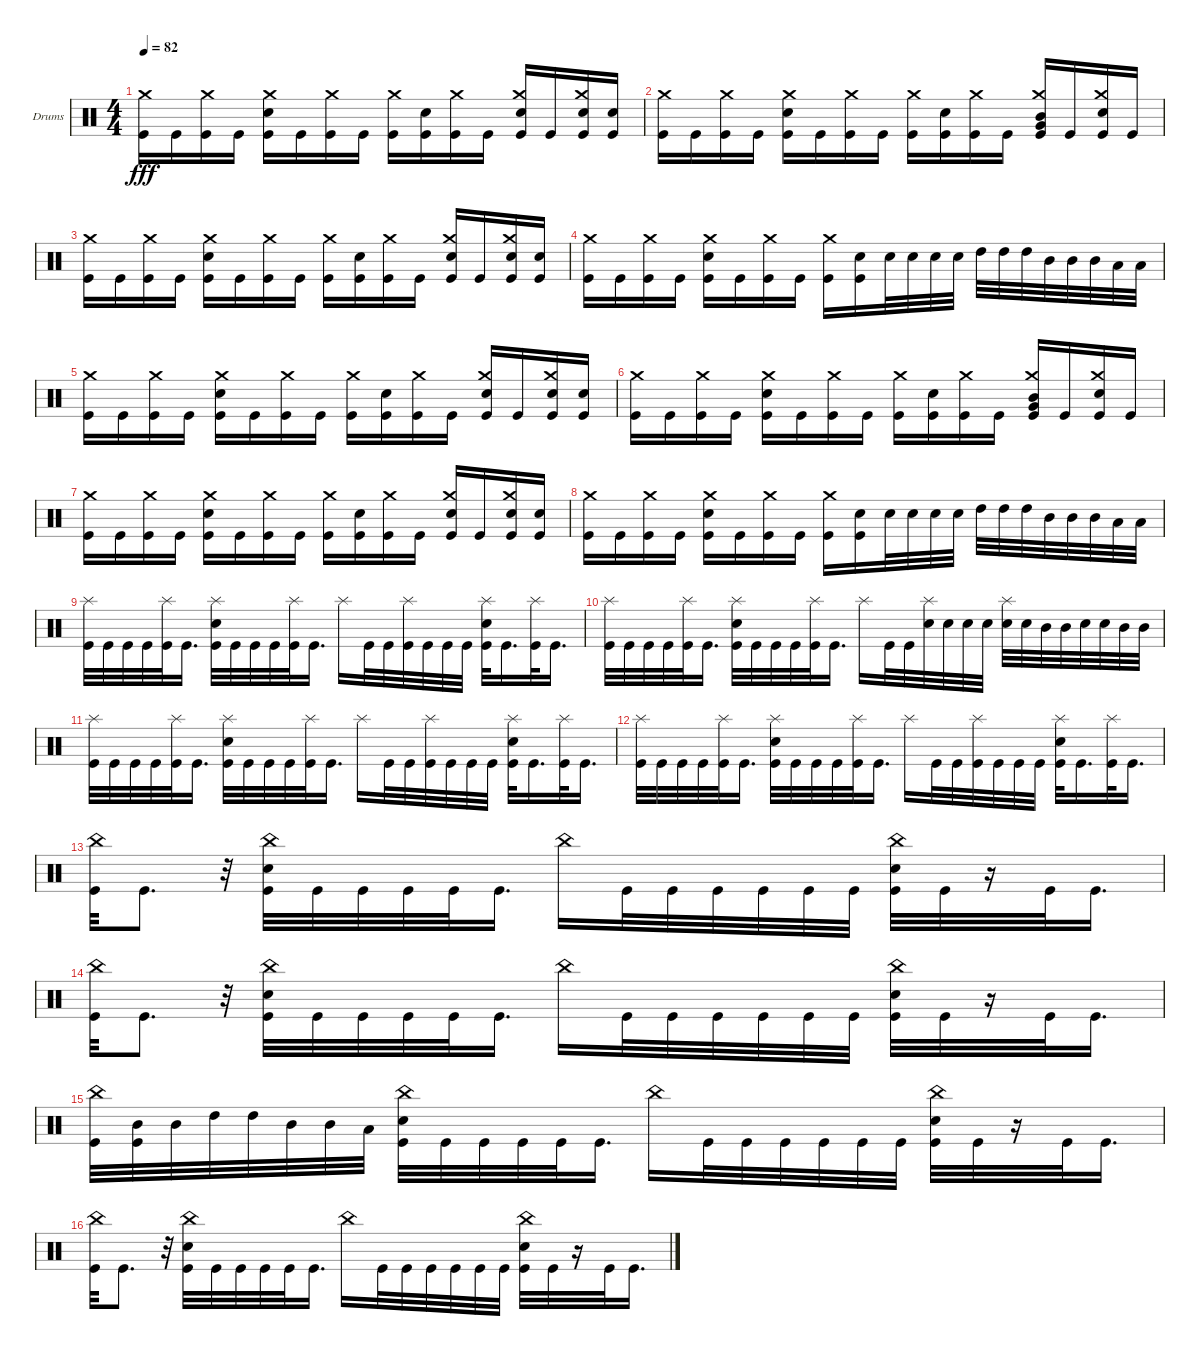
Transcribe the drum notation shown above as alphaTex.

\defaultSystemsLayout 4
\bracketExtendMode groupsimilarinstruments
\firstSystemTrackNameOrientation horizontal
\otherSystemsTrackNameOrientation horizontal
\track ("Drumkit" "Drums") {instrument percussion}
\staff {score}
\articulation defaults
\ts (4 4)
\tempo 82
\clef neutral
\ks c
("Kick (hit)" "Crash medium (hit)").16{dy fff} "Kick (hit)".16 ("Kick (hit)" "Crash medium (hit)").16 "Kick (hit)".16 ("Snare (hit) 2" "Crash medium (hit)" "Kick (hit)").16 "Kick (hit)".16 ("Kick (hit)" "Crash medium (hit)").16 "Kick (hit)".16 ("Kick (hit)" "Crash medium (hit)").16 ("Snare (hit) 2" "Kick (hit)").16 ("Kick (hit)" "Crash medium (hit)").16 "Kick (hit)".16 ("Snare (hit) 2" "Crash medium (hit)" "Kick (hit)").16 "Kick (hit)".16 ("Snare (hit) 2" "Crash medium (hit)" "Kick (hit)").16 ("Snare (hit) 2" "Kick (hit)").16 |
("Kick (hit)" "Crash medium (hit)").16 "Kick (hit)".16 ("Kick (hit)" "Crash medium (hit)").16 "Kick (hit)".16 ("Snare (hit) 2" "Crash medium (hit)" "Kick (hit)").16 "Kick (hit)".16 ("Kick (hit)" "Crash medium (hit)").16 "Kick (hit)".16 ("Kick (hit)" "Crash medium (hit)").16 ("Snare (hit) 2" "Kick (hit)").16 ("Kick (hit)" "Crash medium (hit)").16 "Kick (hit)".16 ("Crash medium (hit)" "Mid Tom (hit)" "Very Low Tom (hit)" "Kick (hit)").16 "Kick (hit)".16 ("Snare (hit) 2" "Crash medium (hit)" "Kick (hit)").16 "Kick (hit)".16 |
("Kick (hit)" "Crash medium (hit)").16 "Kick (hit)".16 ("Kick (hit)" "Crash medium (hit)").16 "Kick (hit)".16 ("Snare (hit) 2" "Crash medium (hit)" "Kick (hit)").16 "Kick (hit)".16 ("Kick (hit)" "Crash medium (hit)").16 "Kick (hit)".16 ("Kick (hit)" "Crash medium (hit)").16 ("Snare (hit) 2" "Kick (hit)").16 ("Kick (hit)" "Crash medium (hit)").16 "Kick (hit)".16 ("Snare (hit) 2" "Crash medium (hit)" "Kick (hit)").16 "Kick (hit)".16 ("Snare (hit) 2" "Crash medium (hit)" "Kick (hit)").16 ("Snare (hit) 2" "Kick (hit)").16 |
("Kick (hit)" "Crash medium (hit)").16 "Kick (hit)".16 ("Kick (hit)" "Crash medium (hit)").16 "Kick (hit)".16 ("Snare (hit) 2" "Crash medium (hit)" "Kick (hit)").16 "Kick (hit)".16 ("Kick (hit)" "Crash medium (hit)").16 "Kick (hit)".16 ("Kick (hit)" "Crash medium (hit)").16 ("Kick (hit)" "Snare (hit) 2").16 "Snare (hit) 2".32 "Snare (hit) 2".32 "Snare (hit) 2".32 "Snare (hit) 2".32 "High Tom (hit)".32 "High Tom (hit)".32 "High Tom (hit)".32 "Mid Tom (hit)".32 "Mid Tom (hit)".32 "Mid Tom (hit)".32 "Low Tom (hit)".32 "Low Tom (hit)".32 |
("Kick (hit)" "Crash medium (hit)").16 "Kick (hit)".16 ("Kick (hit)" "Crash medium (hit)").16 "Kick (hit)".16 ("Snare (hit) 2" "Crash medium (hit)" "Kick (hit)").16 "Kick (hit)".16 ("Kick (hit)" "Crash medium (hit)").16 "Kick (hit)".16 ("Kick (hit)" "Crash medium (hit)").16 ("Snare (hit) 2" "Kick (hit)").16 ("Kick (hit)" "Crash medium (hit)").16 "Kick (hit)".16 ("Snare (hit) 2" "Crash medium (hit)" "Kick (hit)").16 "Kick (hit)".16 ("Snare (hit) 2" "Crash medium (hit)" "Kick (hit)").16 ("Snare (hit) 2" "Kick (hit)").16 |
("Kick (hit)" "Crash medium (hit)").16 "Kick (hit)".16 ("Kick (hit)" "Crash medium (hit)").16 "Kick (hit)".16 ("Snare (hit) 2" "Crash medium (hit)" "Kick (hit)").16 "Kick (hit)".16 ("Kick (hit)" "Crash medium (hit)").16 "Kick (hit)".16 ("Kick (hit)" "Crash medium (hit)").16 ("Snare (hit) 2" "Kick (hit)").16 ("Kick (hit)" "Crash medium (hit)").16 "Kick (hit)".16 ("Crash medium (hit)" "Mid Tom (hit)" "Very Low Tom (hit)" "Kick (hit)").16 "Kick (hit)".16 ("Snare (hit) 2" "Crash medium (hit)" "Kick (hit)").16 "Kick (hit)".16 |
("Kick (hit)" "Crash medium (hit)").16 "Kick (hit)".16 ("Kick (hit)" "Crash medium (hit)").16 "Kick (hit)".16 ("Snare (hit) 2" "Crash medium (hit)" "Kick (hit)").16 "Kick (hit)".16 ("Kick (hit)" "Crash medium (hit)").16 "Kick (hit)".16 ("Kick (hit)" "Crash medium (hit)").16 ("Snare (hit) 2" "Kick (hit)").16 ("Kick (hit)" "Crash medium (hit)").16 "Kick (hit)".16 ("Snare (hit) 2" "Crash medium (hit)" "Kick (hit)").16 "Kick (hit)".16 ("Snare (hit) 2" "Crash medium (hit)" "Kick (hit)").16 ("Snare (hit) 2" "Kick (hit)").16 |
("Kick (hit)" "Crash medium (hit)").16 "Kick (hit)".16 ("Kick (hit)" "Crash medium (hit)").16 "Kick (hit)".16 ("Snare (hit) 2" "Crash medium (hit)" "Kick (hit)").16 "Kick (hit)".16 ("Kick (hit)" "Crash medium (hit)").16 "Kick (hit)".16 ("Kick (hit)" "Crash medium (hit)").16 ("Kick (hit)" "Snare (hit) 2").16 "Snare (hit) 2".32 "Snare (hit) 2".32 "Snare (hit) 2".32 "Snare (hit) 2".32 "High Tom (hit)".32 "High Tom (hit)".32 "High Tom (hit)".32 "Mid Tom (hit)".32 "Mid Tom (hit)".32 "Mid Tom (hit)".32 "Low Tom (hit)".32 "Low Tom (hit)".32 |
("Kick (hit)" "Splash (hit)").32 "Kick (hit)".32 "Kick (hit)".32 "Kick (hit)".32 ("Kick (hit)" "Splash (hit)").32 "Kick (hit)".16{d} ("Kick (hit)" "Splash (hit)" "Snare (hit) 2").32 "Kick (hit)".32 "Kick (hit)".32 "Kick (hit)".32 ("Kick (hit)" "Splash (hit)").32 "Kick (hit)".16{d} "Splash (hit)".16 "Kick (hit)".32 "Kick (hit)".32 ("Kick (hit)" "Splash (hit)").32 "Kick (hit)".32 "Kick (hit)".32 "Kick (hit)".32 ("Kick (hit)" "Splash (hit)" "Snare (hit) 2").32 "Kick (hit)".16{d} ("Kick (hit)" "Splash (hit)").32 "Kick (hit)".16{d} |
("Kick (hit)" "Splash (hit)").32 "Kick (hit)".32 "Kick (hit)".32 "Kick (hit)".32 ("Kick (hit)" "Splash (hit)").32 "Kick (hit)".16{d} ("Kick (hit)" "Splash (hit)" "Snare (hit) 2").32 "Kick (hit)".32 "Kick (hit)".32 "Kick (hit)".32 ("Kick (hit)" "Splash (hit)").32 "Kick (hit)".16{d} "Splash (hit)".16 "Kick (hit)".32 "Kick (hit)".32 ("Splash (hit)" "Snare (hit) 2").32 "Snare (hit) 2".32 "Snare (hit) 2".32 "Snare (hit) 2".32 ("Splash (hit)" "Snare (hit) 2").32 "Snare (hit) 2".32 "Mid Tom (hit)".32 "Mid Tom (hit)".32 "Snare (hit) 2".32 "Snare (hit) 2".32 "Mid Tom (hit)".32 "Mid Tom (hit)".32 |
("Kick (hit)" "Splash (hit)").32 "Kick (hit)".32 "Kick (hit)".32 "Kick (hit)".32 ("Kick (hit)" "Splash (hit)").32 "Kick (hit)".16{d} ("Kick (hit)" "Splash (hit)" "Snare (hit) 2").32 "Kick (hit)".32 "Kick (hit)".32 "Kick (hit)".32 ("Kick (hit)" "Splash (hit)").32 "Kick (hit)".16{d} "Splash (hit)".16 "Kick (hit)".32 "Kick (hit)".32 ("Kick (hit)" "Splash (hit)").32 "Kick (hit)".32 "Kick (hit)".32 "Kick (hit)".32 ("Kick (hit)" "Splash (hit)" "Snare (hit) 2").32 "Kick (hit)".16{d} ("Kick (hit)" "Splash (hit)").32 "Kick (hit)".16{d} |
("Kick (hit)" "Splash (hit)").32 "Kick (hit)".32 "Kick (hit)".32 "Kick (hit)".32 ("Kick (hit)" "Splash (hit)").32 "Kick (hit)".16{d} ("Kick (hit)" "Splash (hit)" "Snare (hit) 2").32 "Kick (hit)".32 "Kick (hit)".32 "Kick (hit)".32 ("Kick (hit)" "Splash (hit)").32 "Kick (hit)".16{d} "Splash (hit)".16 "Kick (hit)".32 "Kick (hit)".32 ("Kick (hit)" "Splash (hit)").32 "Kick (hit)".32 "Kick (hit)".32 "Kick (hit)".32 ("Kick (hit)" "Splash (hit)" "Snare (hit) 2").32 "Kick (hit)".16{d} ("Kick (hit)" "Splash (hit)").32 "Kick (hit)".16{d} |
("Kick (hit)" "China (hit)").32 "Kick (hit)".8{d} r.32 ("China (hit)" "Kick (hit)" "Snare (hit) 2").32 "Kick (hit)".32 "Kick (hit)".32 "Kick (hit)".32 "Kick (hit)".32 "Kick (hit)".16{d} "China (hit)".16 "Kick (hit)".32 "Kick (hit)".32 "Kick (hit)".32 "Kick (hit)".32 "Kick (hit)".32 "Kick (hit)".32 ("Kick (hit)" "Snare (hit) 2" "China (hit)").32 "Kick (hit)".32 r.16 "Kick (hit)".32 "Kick (hit)".16{d} |
("Kick (hit)" "China (hit)").32 "Kick (hit)".8{d} r.32 ("China (hit)" "Kick (hit)" "Snare (hit) 2").32 "Kick (hit)".32 "Kick (hit)".32 "Kick (hit)".32 "Kick (hit)".32 "Kick (hit)".16{d} "China (hit)".16 "Kick (hit)".32 "Kick (hit)".32 "Kick (hit)".32 "Kick (hit)".32 "Kick (hit)".32 "Kick (hit)".32 ("Kick (hit)" "Snare (hit) 2" "China (hit)").32 "Kick (hit)".32 r.16 "Kick (hit)".32 "Kick (hit)".16{d} |
("Kick (hit)" "China (hit)").32 ("Kick (hit)" "Mid Tom (hit)").32 "Mid Tom (hit)".32 "High Tom (hit)".32 "High Tom (hit)".32 "Mid Tom (hit)".32 "Mid Tom (hit)".32 "Low Tom (hit)".32 ("China (hit)" "Kick (hit)" "Snare (hit) 2").32 "Kick (hit)".32 "Kick (hit)".32 "Kick (hit)".32 "Kick (hit)".32 "Kick (hit)".16{d} "China (hit)".16 "Kick (hit)".32 "Kick (hit)".32 "Kick (hit)".32 "Kick (hit)".32 "Kick (hit)".32 "Kick (hit)".32 ("Kick (hit)" "China (hit)" "Snare (hit) 2").32 "Kick (hit)".32 r.16 "Kick (hit)".32 "Kick (hit)".16{d} |
("Kick (hit)" "China (hit)").32 "Kick (hit)".8{d} r.32 ("China (hit)" "Kick (hit)" "Snare (hit) 2").32 "Kick (hit)".32 "Kick (hit)".32 "Kick (hit)".32 "Kick (hit)".32 "Kick (hit)".16{d} "China (hit)".16 "Kick (hit)".32 "Kick (hit)".32 "Kick (hit)".32 "Kick (hit)".32 "Kick (hit)".32 "Kick (hit)".32 ("Kick (hit)" "Snare (hit) 2" "China (hit)").32 "Kick (hit)".32 r.16 "Kick (hit)".32 "Kick (hit)".16{d}
